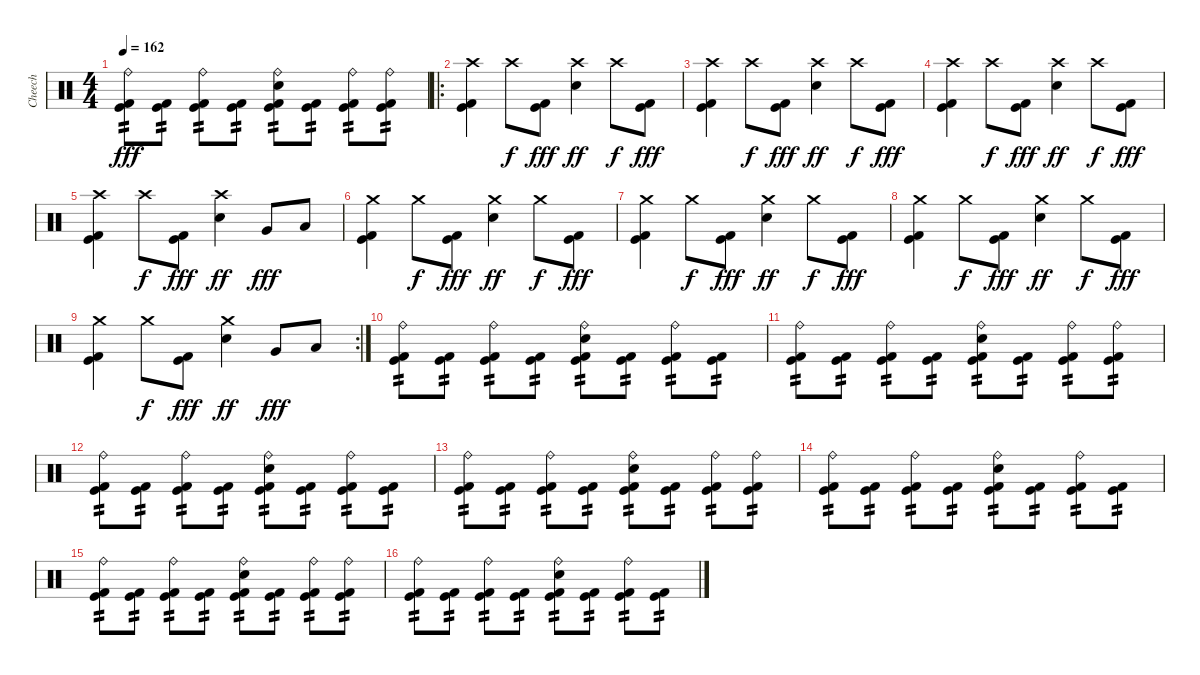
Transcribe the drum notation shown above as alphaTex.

\track ("Cheech" "Cheech") {instrument percussion}
\staff {score}
\articulation defaults
\ts (4 4)
\tempo 162
\clef neutral
\ks c
("Ride (bell)" "Kick (hit) 2" "Kick (hit)").8{tp 2 dy fff} ("Kick (hit) 2" "Kick (hit)").8{tp 2} ("Ride (bell)" "Kick (hit) 2" "Kick (hit)").8{tp 2} ("Kick (hit) 2" "Kick (hit)").8{tp 2} ("Ride (bell)" "Electric Snare (hit)" "Kick (hit) 2" "Kick (hit)").8{tp 2} ("Kick (hit) 2" "Kick (hit)").8{tp 2} ("Ride (bell)" "Kick (hit) 2" "Kick (hit)").8{tp 2} ("Ride (bell)" "Kick (hit) 2" "Kick (hit)").8{tp 2} |
\ro
("Crash high (hit)" "Kick (hit) 2" "Kick (hit)").4 "Crash high (hit)".8{dy f} ("Kick (hit) 2" "Kick (hit)").8{dy fff} ("Crash high (hit)" "Electric Snare (hit)").4{dy ff} "Crash high (hit)".8{dy f} ("Kick (hit) 2" "Kick (hit)").8{dy fff} |
("Crash high (hit)" "Kick (hit) 2" "Kick (hit)").4 "Crash high (hit)".8{dy f} ("Kick (hit) 2" "Kick (hit)").8{dy fff} ("Crash high (hit)" "Electric Snare (hit)").4{dy ff} "Crash high (hit)".8{dy f} ("Kick (hit) 2" "Kick (hit)").8{dy fff} |
("Crash high (hit)" "Kick (hit) 2" "Kick (hit)").4 "Crash high (hit)".8{dy f} ("Kick (hit) 2" "Kick (hit)").8{dy fff} ("Crash high (hit)" "Electric Snare (hit)").4{dy ff} "Crash high (hit)".8{dy f} ("Kick (hit) 2" "Kick (hit)").8{dy fff} |
("Crash high (hit)" "Kick (hit) 2" "Kick (hit)").4 "Crash high (hit)".8{dy f} ("Kick (hit) 2" "Kick (hit)").8{dy fff} ("Crash high (hit)" "Electric Snare (hit)").4{dy ff} "Very Low Tom (hit)".8{dy fff} "Low Floor Tom (hit)".8 |
("Crash medium (hit)" "Kick (hit) 2" "Kick (hit)").4 "Crash medium (hit)".8{dy f} ("Kick (hit) 2" "Kick (hit)").8{dy fff} ("Crash medium (hit)" "Electric Snare (hit)").4{dy ff} "Crash medium (hit)".8{dy f} ("Kick (hit) 2" "Kick (hit)").8{dy fff} |
("Crash medium (hit)" "Kick (hit) 2" "Kick (hit)").4 "Crash medium (hit)".8{dy f} ("Kick (hit) 2" "Kick (hit)").8{dy fff} ("Crash medium (hit)" "Electric Snare (hit)").4{dy ff} "Crash medium (hit)".8{dy f} ("Kick (hit) 2" "Kick (hit)").8{dy fff} |
("Crash medium (hit)" "Kick (hit) 2" "Kick (hit)").4 "Crash medium (hit)".8{dy f} ("Kick (hit) 2" "Kick (hit)").8{dy fff} ("Crash medium (hit)" "Electric Snare (hit)").4{dy ff} "Crash medium (hit)".8{dy f} ("Kick (hit) 2" "Kick (hit)").8{dy fff} |
\rc 2
("Crash medium (hit)" "Kick (hit) 2" "Kick (hit)").4 "Crash medium (hit)".8{dy f} ("Kick (hit) 2" "Kick (hit)").8{dy fff} ("Crash medium (hit)" "Electric Snare (hit)").4{dy ff} "Very Low Tom (hit)".8{dy fff} "Low Floor Tom (hit)".8 |
("Ride (bell)" "Kick (hit) 2" "Kick (hit)").8{tp 2} ("Kick (hit) 2" "Kick (hit)").8{tp 2} ("Ride (bell)" "Kick (hit) 2" "Kick (hit)").8{tp 2} ("Kick (hit) 2" "Kick (hit)").8{tp 2} ("Ride (bell)" "Electric Snare (hit)" "Kick (hit) 2" "Kick (hit)").8{tp 2} ("Kick (hit) 2" "Kick (hit)").8{tp 2} ("Ride (bell)" "Kick (hit) 2" "Kick (hit)").8{tp 2} ("Kick (hit) 2" "Kick (hit)").8{tp 2} |
("Ride (bell)" "Kick (hit) 2" "Kick (hit)").8{tp 2} ("Kick (hit) 2" "Kick (hit)").8{tp 2} ("Ride (bell)" "Kick (hit) 2" "Kick (hit)").8{tp 2} ("Kick (hit) 2" "Kick (hit)").8{tp 2} ("Ride (bell)" "Electric Snare (hit)" "Kick (hit) 2" "Kick (hit)").8{tp 2} ("Kick (hit) 2" "Kick (hit)").8{tp 2} ("Ride (bell)" "Kick (hit) 2" "Kick (hit)").8{tp 2} ("Ride (bell)" "Kick (hit) 2" "Kick (hit)").8{tp 2} |
("Ride (bell)" "Kick (hit) 2" "Kick (hit)").8{tp 2} ("Kick (hit) 2" "Kick (hit)").8{tp 2} ("Ride (bell)" "Kick (hit) 2" "Kick (hit)").8{tp 2} ("Kick (hit) 2" "Kick (hit)").8{tp 2} ("Ride (bell)" "Electric Snare (hit)" "Kick (hit) 2" "Kick (hit)").8{tp 2} ("Kick (hit) 2" "Kick (hit)").8{tp 2} ("Ride (bell)" "Kick (hit) 2" "Kick (hit)").8{tp 2} ("Kick (hit) 2" "Kick (hit)").8{tp 2} |
("Ride (bell)" "Kick (hit) 2" "Kick (hit)").8{tp 2} ("Kick (hit) 2" "Kick (hit)").8{tp 2} ("Ride (bell)" "Kick (hit) 2" "Kick (hit)").8{tp 2} ("Kick (hit) 2" "Kick (hit)").8{tp 2} ("Ride (bell)" "Electric Snare (hit)" "Kick (hit) 2" "Kick (hit)").8{tp 2} ("Kick (hit) 2" "Kick (hit)").8{tp 2} ("Ride (bell)" "Kick (hit) 2" "Kick (hit)").8{tp 2} ("Ride (bell)" "Kick (hit) 2" "Kick (hit)").8{tp 2} |
("Ride (bell)" "Kick (hit) 2" "Kick (hit)").8{tp 2} ("Kick (hit) 2" "Kick (hit)").8{tp 2} ("Ride (bell)" "Kick (hit) 2" "Kick (hit)").8{tp 2} ("Kick (hit) 2" "Kick (hit)").8{tp 2} ("Ride (bell)" "Electric Snare (hit)" "Kick (hit) 2" "Kick (hit)").8{tp 2} ("Kick (hit) 2" "Kick (hit)").8{tp 2} ("Ride (bell)" "Kick (hit) 2" "Kick (hit)").8{tp 2} ("Kick (hit) 2" "Kick (hit)").8{tp 2} |
("Ride (bell)" "Kick (hit) 2" "Kick (hit)").8{tp 2} ("Kick (hit) 2" "Kick (hit)").8{tp 2} ("Ride (bell)" "Kick (hit) 2" "Kick (hit)").8{tp 2} ("Kick (hit) 2" "Kick (hit)").8{tp 2} ("Ride (bell)" "Electric Snare (hit)" "Kick (hit) 2" "Kick (hit)").8{tp 2} ("Kick (hit) 2" "Kick (hit)").8{tp 2} ("Ride (bell)" "Kick (hit) 2" "Kick (hit)").8{tp 2} ("Ride (bell)" "Kick (hit) 2" "Kick (hit)").8{tp 2} |
("Ride (bell)" "Kick (hit) 2" "Kick (hit)").8{tp 2} ("Kick (hit) 2" "Kick (hit)").8{tp 2} ("Ride (bell)" "Kick (hit) 2" "Kick (hit)").8{tp 2} ("Kick (hit) 2" "Kick (hit)").8{tp 2} ("Ride (bell)" "Electric Snare (hit)" "Kick (hit) 2" "Kick (hit)").8{tp 2} ("Kick (hit) 2" "Kick (hit)").8{tp 2} ("Ride (bell)" "Kick (hit) 2" "Kick (hit)").8{tp 2} ("Kick (hit) 2" "Kick (hit)").8{tp 2}
